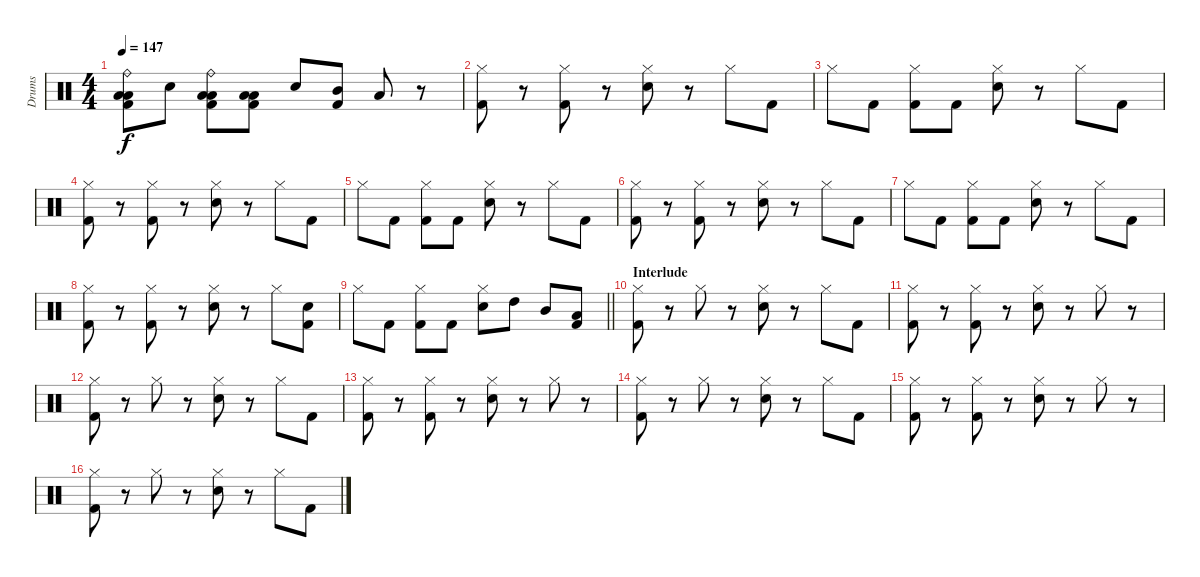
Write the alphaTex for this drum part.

\track ("Drums" "Drums") {instrument percussion}
\staff {score}
\articulation defaults
\ts (4 4)
\tempo 147
\clef neutral
\ks c
("Ride (bell)" "Low Tom (hit)" "Low Floor Tom (hit)" "Kick (hit) 2").8{dy f} "Electric Snare (hit)".8 ("Ride (bell)" "Low Tom (hit)" "Low Floor Tom (hit)" "Kick (hit) 2").8 ("Low Tom (hit)" "Low Floor Tom (hit)" "Kick (hit) 2").8 "Electric Snare (hit)".8 ("Mid Tom (hit)" "Kick (hit) 2").8 "Low Tom (hit)".8 r.8 |
("Hi-Hat (closed)" "Kick (hit) 2").8 r.8 ("Hi-Hat (closed)" "Kick (hit) 2").8 r.8 ("Hi-Hat (closed)" "Electric Snare (hit)").8 r.8 "Hi-Hat (closed)".8 "Kick (hit) 2".8 |
"Hi-Hat (closed)".8 "Kick (hit) 2".8 ("Hi-Hat (closed)" "Kick (hit) 2").8 "Kick (hit) 2".8 ("Hi-Hat (closed)" "Electric Snare (hit)").8 r.8 "Hi-Hat (closed)".8 "Kick (hit) 2".8 |
("Hi-Hat (closed)" "Kick (hit) 2").8 r.8 ("Hi-Hat (closed)" "Kick (hit) 2").8 r.8 ("Hi-Hat (closed)" "Electric Snare (hit)").8 r.8 "Hi-Hat (closed)".8 "Kick (hit) 2".8 |
"Hi-Hat (closed)".8 "Kick (hit) 2".8 ("Hi-Hat (closed)" "Kick (hit) 2").8 "Kick (hit) 2".8 ("Hi-Hat (closed)" "Electric Snare (hit)").8 r.8 "Hi-Hat (closed)".8 "Kick (hit) 2".8 |
("Hi-Hat (closed)" "Kick (hit) 2").8 r.8 ("Hi-Hat (closed)" "Kick (hit) 2").8 r.8 ("Hi-Hat (closed)" "Electric Snare (hit)").8 r.8 "Hi-Hat (closed)".8 "Kick (hit) 2".8 |
"Hi-Hat (closed)".8 "Kick (hit) 2".8 ("Hi-Hat (closed)" "Kick (hit) 2").8 "Kick (hit) 2".8 ("Hi-Hat (closed)" "Electric Snare (hit)").8 r.8 "Hi-Hat (closed)".8 "Kick (hit) 2".8 |
("Hi-Hat (closed)" "Kick (hit) 2").8 r.8 ("Hi-Hat (closed)" "Kick (hit) 2").8 r.8 ("Hi-Hat (closed)" "Electric Snare (hit)").8 r.8 "Hi-Hat (closed)".8 ("Electric Snare (hit)" "Kick (hit) 2").8 |
\barLineRight lightlight "Hi-Hat (closed)".8 "Kick (hit) 2".8
("Hi-Hat (closed)" "Kick (hit) 2").8 "Kick (hit) 2".8 ("Hi-Hat (closed)" "Electric Snare (hit)").8 "High Tom (hit)".8 "Mid Tom (hit)".8 ("Low Tom (hit)" "Kick (hit) 2").8 |
\section ("" "Interlude")
("Hi-Hat (closed)" "Kick (hit) 2").8 r.8 "Hi-Hat (closed)".8 r.8 ("Hi-Hat (closed)" "Electric Snare (hit)").8 r.8 "Hi-Hat (closed)".8 "Kick (hit) 2".8 |
("Hi-Hat (closed)" "Kick (hit) 2").8 r.8 ("Hi-Hat (closed)" "Kick (hit) 2").8 r.8 ("Hi-Hat (closed)" "Electric Snare (hit)").8 r.8 "Hi-Hat (closed)".8 r.8 |
("Hi-Hat (closed)" "Kick (hit) 2").8 r.8 "Hi-Hat (closed)".8 r.8 ("Hi-Hat (closed)" "Electric Snare (hit)").8 r.8 "Hi-Hat (closed)".8 "Kick (hit) 2".8 |
("Hi-Hat (closed)" "Kick (hit) 2").8 r.8 ("Hi-Hat (closed)" "Kick (hit) 2").8 r.8 ("Hi-Hat (closed)" "Electric Snare (hit)").8 r.8 "Hi-Hat (closed)".8 r.8 |
("Hi-Hat (closed)" "Kick (hit) 2").8 r.8 "Hi-Hat (closed)".8 r.8 ("Hi-Hat (closed)" "Electric Snare (hit)").8 r.8 "Hi-Hat (closed)".8 "Kick (hit) 2".8 |
("Hi-Hat (closed)" "Kick (hit) 2").8 r.8 ("Hi-Hat (closed)" "Kick (hit) 2").8 r.8 ("Hi-Hat (closed)" "Electric Snare (hit)").8 r.8 "Hi-Hat (closed)".8 r.8 |
("Hi-Hat (closed)" "Kick (hit) 2").8 r.8 "Hi-Hat (closed)".8 r.8 ("Hi-Hat (closed)" "Electric Snare (hit)").8 r.8 "Hi-Hat (closed)".8 "Kick (hit) 2".8
